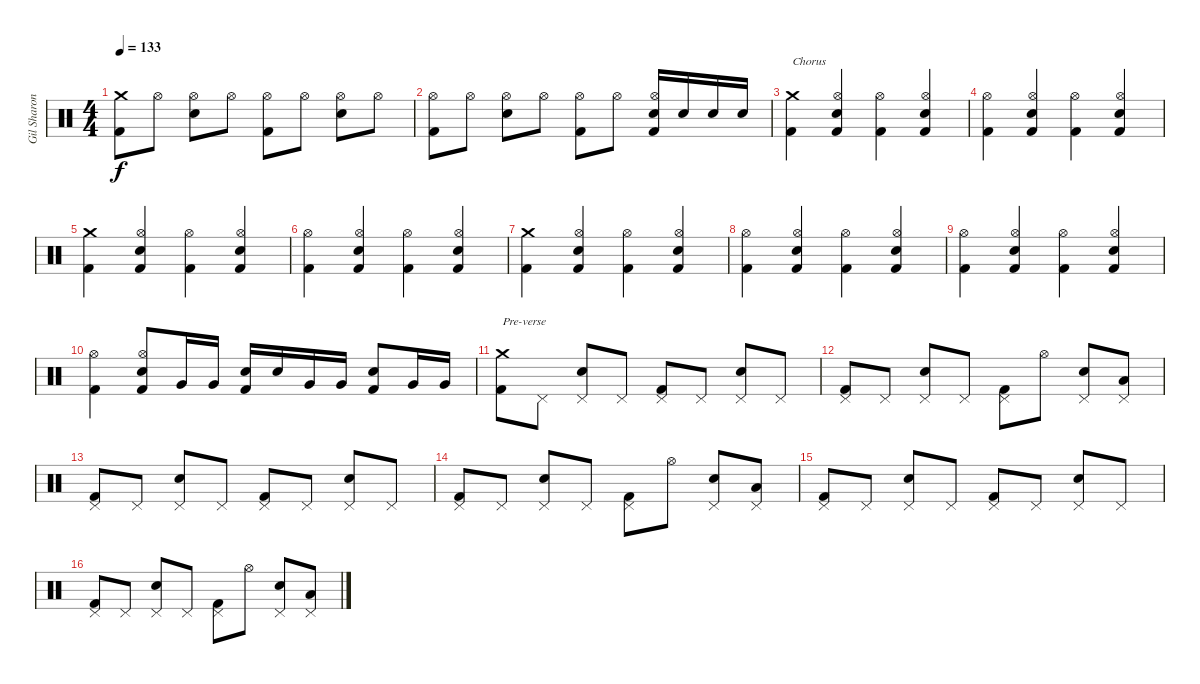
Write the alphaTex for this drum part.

\track ("Gil Sharone" "Gil Sharon") {instrument percussion}
\staff {score}
\articulation defaults
\ts (4 4)
\tempo 133
\clef neutral
\ks c
("Crash medium (hit)" "Kick (hit) 2").8{dy f} "Hi-Hat (open)".8 ("Hi-Hat (open)" "Electric Snare (hit)").8 "Hi-Hat (open)".8 ("Hi-Hat (open)" "Kick (hit) 2").8 "Hi-Hat (open)".8 ("Hi-Hat (open)" "Electric Snare (hit)").8 "Hi-Hat (open)".8 |
("Hi-Hat (open)" "Kick (hit) 2").8 "Hi-Hat (open)".8 ("Hi-Hat (open)" "Electric Snare (hit)").8 "Hi-Hat (open)".8 ("Hi-Hat (open)" "Kick (hit) 2").8 "Hi-Hat (open)".8 ("Hi-Hat (open)" "Electric Snare (hit)" "Kick (hit) 2").16 "Electric Snare (hit)".16 "Electric Snare (hit)".16 "Electric Snare (hit)".16 |
("Crash medium (hit)" "Kick (hit) 2").4{txt "Chorus"} ("Hi-Hat (open)" "Electric Snare (hit)" "Kick (hit) 2").4 ("Hi-Hat (open)" "Kick (hit) 2").4 ("Hi-Hat (open)" "Electric Snare (hit)" "Kick (hit) 2").4 |
("Hi-Hat (open)" "Kick (hit) 2").4 ("Hi-Hat (open)" "Electric Snare (hit)" "Kick (hit) 2").4 ("Hi-Hat (open)" "Kick (hit) 2").4 ("Hi-Hat (open)" "Electric Snare (hit)" "Kick (hit) 2").4 |
("Crash medium (hit)" "Kick (hit) 2").4 ("Hi-Hat (open)" "Electric Snare (hit)" "Kick (hit) 2").4 ("Hi-Hat (open)" "Kick (hit) 2").4 ("Hi-Hat (open)" "Electric Snare (hit)" "Kick (hit) 2").4 |
("Hi-Hat (open)" "Kick (hit) 2").4 ("Hi-Hat (open)" "Electric Snare (hit)" "Kick (hit) 2").4 ("Hi-Hat (open)" "Kick (hit) 2").4 ("Hi-Hat (open)" "Electric Snare (hit)" "Kick (hit) 2").4 |
("Crash medium (hit)" "Kick (hit) 2").4 ("Hi-Hat (open)" "Electric Snare (hit)" "Kick (hit) 2").4 ("Hi-Hat (open)" "Kick (hit) 2").4 ("Hi-Hat (open)" "Electric Snare (hit)" "Kick (hit) 2").4 |
("Hi-Hat (open)" "Kick (hit) 2").4 ("Hi-Hat (open)" "Electric Snare (hit)" "Kick (hit) 2").4 ("Hi-Hat (open)" "Kick (hit) 2").4 ("Hi-Hat (open)" "Electric Snare (hit)" "Kick (hit) 2").4 |
("Hi-Hat (open)" "Kick (hit) 2").4 ("Hi-Hat (open)" "Electric Snare (hit)" "Kick (hit) 2").4 ("Hi-Hat (open)" "Kick (hit) 2").4 ("Hi-Hat (open)" "Electric Snare (hit)" "Kick (hit) 2").4 |
("Hi-Hat (open)" "Kick (hit) 2").4 ("Hi-Hat (open)" "Electric Snare (hit)" "Kick (hit) 2").8 "Very Low Tom (hit)".16 "Very Low Tom (hit)".16 ("Electric Snare (hit)" "Kick (hit) 2").16 "Electric Snare (hit)".16 "Very Low Tom (hit)".16 "Very Low Tom (hit)".16 ("Electric Snare (hit)" "Kick (hit) 2").8 "Very Low Tom (hit)".16 "Very Low Tom (hit)".16 |
("Crash medium (hit)" "Kick (hit) 2").8{txt "Pre-verse"} "Pedal Hi-Hat (hit)".8 ("Pedal Hi-Hat (hit)" "Electric Snare (hit)").8 "Pedal Hi-Hat (hit)".8 ("Pedal Hi-Hat (hit)" "Kick (hit) 2").8 "Pedal Hi-Hat (hit)".8 ("Pedal Hi-Hat (hit)" "Electric Snare (hit)").8 "Pedal Hi-Hat (hit)".8 |
("Pedal Hi-Hat (hit)" "Kick (hit) 2").8 "Pedal Hi-Hat (hit)".8 ("Pedal Hi-Hat (hit)" "Electric Snare (hit)").8 "Pedal Hi-Hat (hit)".8 ("Pedal Hi-Hat (hit)" "Kick (hit) 2").8 "Hi-Hat (open)".8 ("Pedal Hi-Hat (hit)" "Electric Snare (hit)").8 ("Pedal Hi-Hat (hit)" "Low Floor Tom (hit)").8 |
("Pedal Hi-Hat (hit)" "Kick (hit) 2").8 "Pedal Hi-Hat (hit)".8 ("Pedal Hi-Hat (hit)" "Electric Snare (hit)").8 "Pedal Hi-Hat (hit)".8 ("Pedal Hi-Hat (hit)" "Kick (hit) 2").8 "Pedal Hi-Hat (hit)".8 ("Pedal Hi-Hat (hit)" "Electric Snare (hit)").8 "Pedal Hi-Hat (hit)".8 |
("Pedal Hi-Hat (hit)" "Kick (hit) 2").8 "Pedal Hi-Hat (hit)".8 ("Pedal Hi-Hat (hit)" "Electric Snare (hit)").8 "Pedal Hi-Hat (hit)".8 ("Pedal Hi-Hat (hit)" "Kick (hit) 2").8 "Hi-Hat (open)".8 ("Pedal Hi-Hat (hit)" "Electric Snare (hit)").8 ("Pedal Hi-Hat (hit)" "Low Floor Tom (hit)").8 |
("Pedal Hi-Hat (hit)" "Kick (hit) 2").8 "Pedal Hi-Hat (hit)".8 ("Pedal Hi-Hat (hit)" "Electric Snare (hit)").8 "Pedal Hi-Hat (hit)".8 ("Pedal Hi-Hat (hit)" "Kick (hit) 2").8 "Pedal Hi-Hat (hit)".8 ("Pedal Hi-Hat (hit)" "Electric Snare (hit)").8 "Pedal Hi-Hat (hit)".8 |
("Pedal Hi-Hat (hit)" "Kick (hit) 2").8 "Pedal Hi-Hat (hit)".8 ("Pedal Hi-Hat (hit)" "Electric Snare (hit)").8 "Pedal Hi-Hat (hit)".8 ("Pedal Hi-Hat (hit)" "Kick (hit) 2").8 "Hi-Hat (open)".8 ("Pedal Hi-Hat (hit)" "Electric Snare (hit)").8 ("Pedal Hi-Hat (hit)" "Low Floor Tom (hit)").8
